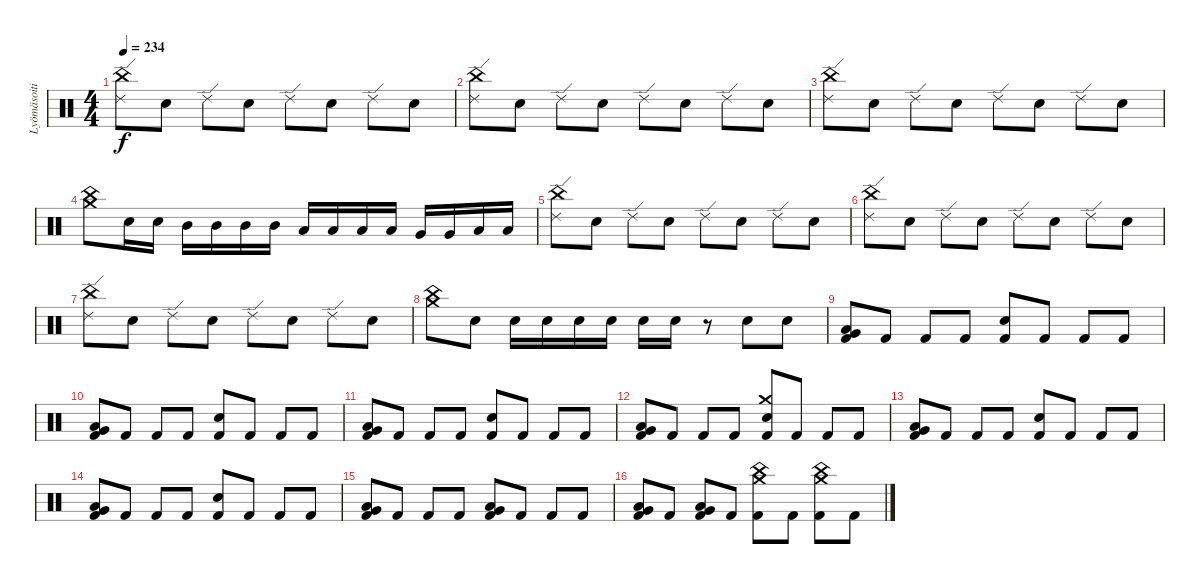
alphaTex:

\track ("Lyömäsoitin" "Lyömäsoiti") {instrument percussion}
\staff {score}
\articulation defaults
\ts (4 4)
\tempo 234
\clef neutral
\ks c
("Ride (edge) 2" "China (hit)").8{dy f} "Electric Snare (hit)".8 "Ride (edge) 2".8 "Electric Snare (hit)".8 "Ride (edge) 2".8 "Electric Snare (hit)".8 "Ride (edge) 2".8 "Electric Snare (hit)".8 |
("Ride (edge) 2" "China (hit)").8 "Electric Snare (hit)".8 "Ride (edge) 2".8 "Electric Snare (hit)".8 "Ride (edge) 2".8 "Electric Snare (hit)".8 "Ride (edge) 2".8 "Electric Snare (hit)".8 |
("Ride (edge) 2" "China (hit)").8 "Electric Snare (hit)".8 "Ride (edge) 2".8 "Electric Snare (hit)".8 "Ride (edge) 2".8 "Electric Snare (hit)".8 "Ride (edge) 2".8 "Electric Snare (hit)".8 |
("Crash medium (hit)" "China (hit)").8 "Electric Snare (hit)".16 "Electric Snare (hit)".16 "Mid Tom (hit)".16 "Mid Tom (hit)".16 "Mid Tom (hit)".16 "Mid Tom (hit)".16 "Low Tom (hit)".16 "Low Tom (hit)".16 "Low Tom (hit)".16 "Low Tom (hit)".16 "Very Low Tom (hit)".16 "Very Low Tom (hit)".16 "Low Floor Tom (hit)".16 "Low Floor Tom (hit)".16 |
("Ride (edge) 2" "China (hit)").8 "Electric Snare (hit)".8 "Ride (edge) 2".8 "Electric Snare (hit)".8 "Ride (edge) 2".8 "Electric Snare (hit)".8 "Ride (edge) 2".8 "Electric Snare (hit)".8 |
("Ride (edge) 2" "China (hit)").8 "Electric Snare (hit)".8 "Ride (edge) 2".8 "Electric Snare (hit)".8 "Ride (edge) 2".8 "Electric Snare (hit)".8 "Ride (edge) 2".8 "Electric Snare (hit)".8 |
("Ride (edge) 2" "China (hit)").8 "Electric Snare (hit)".8 "Ride (edge) 2".8 "Electric Snare (hit)".8 "Ride (edge) 2".8 "Electric Snare (hit)".8 "Ride (edge) 2".8 "Electric Snare (hit)".8 |
("Crash medium (hit)" "China (hit)").8 "Electric Snare (hit)".8 "Electric Snare (hit)".16 "Electric Snare (hit)".16 "Electric Snare (hit)".16 "Electric Snare (hit)".16 "Electric Snare (hit)".16 "Electric Snare (hit)".16 r.8 "Electric Snare (hit)".8 "Electric Snare (hit)".8 |
("Very Low Tom (hit)" "Low Floor Tom (hit)" "Kick (hit) 2").8 "Kick (hit) 2".8 "Kick (hit) 2".8 "Kick (hit) 2".8 ("Electric Snare (hit)" "Kick (hit) 2").8 "Kick (hit) 2".8 "Kick (hit) 2".8 "Kick (hit) 2".8 |
("Very Low Tom (hit)" "Low Floor Tom (hit)" "Kick (hit) 2").8 "Kick (hit) 2".8 "Kick (hit) 2".8 "Kick (hit) 2".8 ("Electric Snare (hit)" "Kick (hit) 2").8 "Kick (hit) 2".8 "Kick (hit) 2".8 "Kick (hit) 2".8 |
("Very Low Tom (hit)" "Low Floor Tom (hit)" "Kick (hit) 2").8 "Kick (hit) 2".8 "Kick (hit) 2".8 "Kick (hit) 2".8 ("Electric Snare (hit)" "Kick (hit) 2").8 "Kick (hit) 2".8 "Kick (hit) 2".8 "Kick (hit) 2".8 |
("Very Low Tom (hit)" "Low Floor Tom (hit)" "Kick (hit) 2").8 "Kick (hit) 2".8 "Kick (hit) 2".8 "Kick (hit) 2".8 ("Crash medium (hit)" "Electric Snare (hit)" "Kick (hit) 2").8 "Kick (hit) 2".8 "Kick (hit) 2".8 "Kick (hit) 2".8 |
("Very Low Tom (hit)" "Low Floor Tom (hit)" "Kick (hit) 2").8 "Kick (hit) 2".8 "Kick (hit) 2".8 "Kick (hit) 2".8 ("Electric Snare (hit)" "Kick (hit) 2").8 "Kick (hit) 2".8 "Kick (hit) 2".8 "Kick (hit) 2".8 |
("Very Low Tom (hit)" "Low Floor Tom (hit)" "Kick (hit) 2").8 "Kick (hit) 2".8 "Kick (hit) 2".8 "Kick (hit) 2".8 ("Electric Snare (hit)" "Kick (hit) 2").8 "Kick (hit) 2".8 "Kick (hit) 2".8 "Kick (hit) 2".8 |
("Very Low Tom (hit)" "Low Floor Tom (hit)" "Kick (hit) 2").8 "Kick (hit) 2".8 "Kick (hit) 2".8 "Kick (hit) 2".8 ("Very Low Tom (hit)" "Low Floor Tom (hit)" "Kick (hit) 2").8 "Kick (hit) 2".8 "Kick (hit) 2".8 "Kick (hit) 2".8 |
("Very Low Tom (hit)" "Low Floor Tom (hit)" "Kick (hit) 2").8 "Kick (hit) 2".8 ("Very Low Tom (hit)" "Low Floor Tom (hit)" "Kick (hit) 2").8 "Kick (hit) 2".8 ("Crash medium (hit)" "China (hit)" "Kick (hit) 2").8 "Kick (hit) 2".8 ("Crash medium (hit)" "China (hit)" "Kick (hit) 2").8 "Kick (hit) 2".8
